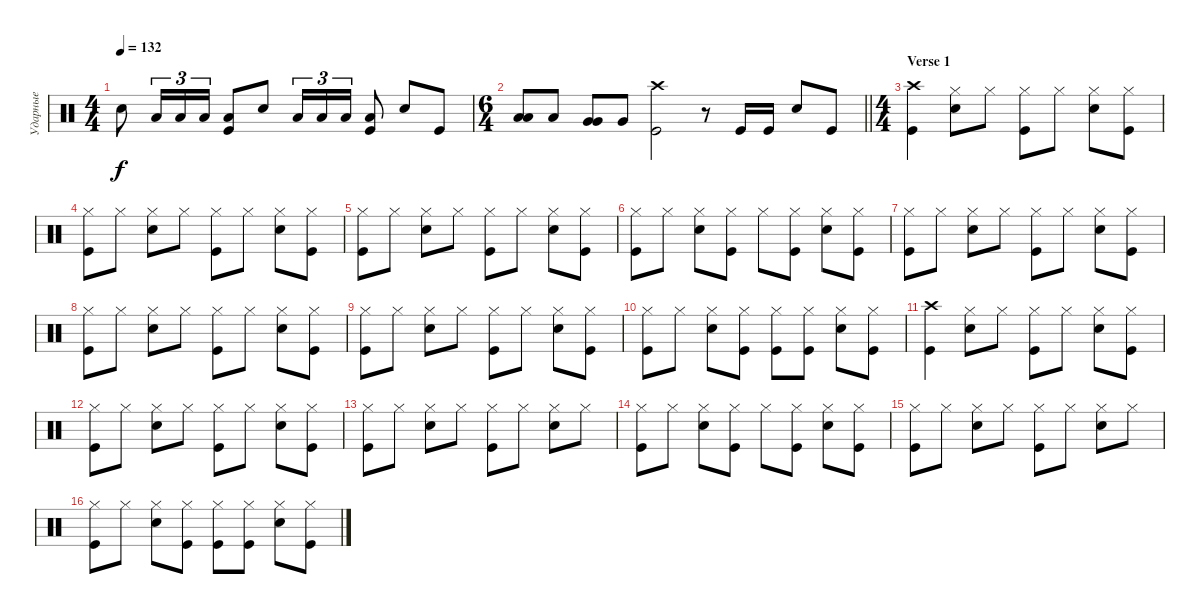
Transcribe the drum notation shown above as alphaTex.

\track ("Ударные" "Ударные") {instrument percussion}
\staff {score}
\articulation defaults
\ts (4 4)
\tempo 132
\clef neutral
\ks c "Snare (hit) 2".8{dy f} "Low Tom (hit)".16{tu (3 2)} "Low Tom (hit)".16{tu (3 2)} "Low Tom (hit)".16{tu (3 2)}
("Kick (hit)" "Low Tom (hit)").8 "Snare (hit) 2".8 "Low Tom (hit)".16{tu (3 2)} "Low Tom (hit)".16{tu (3 2)} "Low Tom (hit)".16{tu (3 2)} ("Kick (hit)" "Low Tom (hit)").8 "Snare (hit) 2".8 "Kick (hit)".8 |
\ts (6 4)
\barLineRight lightlight
("Low Tom (hit)" "Low Tom (hit)").8{bd 240} "Low Tom (hit)".8 ("Very Low Tom (hit)" "Very Low Tom (hit)").8{bd 240} "Very Low Tom (hit)".8 ("Kick (hit)" "Crash high (hit)").2 r.8 "Kick (hit)".16 "Kick (hit)".16 "Snare (hit) 2".8 "Kick (hit)".8 |
\ts (4 4)
\section ("" "Verse 1")
("Kick (hit)" "Crash high (hit)").4 ("Snare (hit) 2" "Hi-Hat (closed)").8 "Hi-Hat (closed)".8 ("Kick (hit)" "Hi-Hat (closed)").8 "Hi-Hat (closed)".8 ("Snare (hit) 2" "Hi-Hat (closed)").8 ("Kick (hit)" "Hi-Hat (closed)").8 |
("Kick (hit)" "Hi-Hat (closed)").8 "Hi-Hat (closed)".8 ("Snare (hit) 2" "Hi-Hat (closed)").8 "Hi-Hat (closed)".8 ("Kick (hit)" "Hi-Hat (closed)").8 "Hi-Hat (closed)".8 ("Snare (hit) 2" "Hi-Hat (closed)").8 ("Kick (hit)" "Hi-Hat (closed)").8 |
("Kick (hit)" "Hi-Hat (closed)").8 "Hi-Hat (closed)".8 ("Snare (hit) 2" "Hi-Hat (closed)").8 "Hi-Hat (closed)".8 ("Kick (hit)" "Hi-Hat (closed)").8 "Hi-Hat (closed)".8 ("Snare (hit) 2" "Hi-Hat (closed)").8 ("Kick (hit)" "Hi-Hat (closed)").8 |
("Kick (hit)" "Hi-Hat (closed)").8 "Hi-Hat (closed)".8 ("Snare (hit) 2" "Hi-Hat (closed)").8 ("Hi-Hat (closed)" "Kick (hit)").8 "Hi-Hat (closed)".8 ("Hi-Hat (closed)" "Kick (hit)").8 ("Snare (hit) 2" "Hi-Hat (closed)").8 ("Kick (hit)" "Hi-Hat (closed)").8 |
("Kick (hit)" "Hi-Hat (closed)").8 "Hi-Hat (closed)".8 ("Snare (hit) 2" "Hi-Hat (closed)").8 "Hi-Hat (closed)".8 ("Kick (hit)" "Hi-Hat (closed)").8 "Hi-Hat (closed)".8 ("Snare (hit) 2" "Hi-Hat (closed)").8 ("Kick (hit)" "Hi-Hat (closed)").8 |
("Kick (hit)" "Hi-Hat (closed)").8 "Hi-Hat (closed)".8 ("Snare (hit) 2" "Hi-Hat (closed)").8 "Hi-Hat (closed)".8 ("Kick (hit)" "Hi-Hat (closed)").8 "Hi-Hat (closed)".8 ("Snare (hit) 2" "Hi-Hat (closed)").8 ("Kick (hit)" "Hi-Hat (closed)").8 |
("Kick (hit)" "Hi-Hat (closed)").8 "Hi-Hat (closed)".8 ("Snare (hit) 2" "Hi-Hat (closed)").8 "Hi-Hat (closed)".8 ("Kick (hit)" "Hi-Hat (closed)").8 "Hi-Hat (closed)".8 ("Snare (hit) 2" "Hi-Hat (closed)").8 ("Kick (hit)" "Hi-Hat (closed)").8 |
("Kick (hit)" "Hi-Hat (closed)").8 "Hi-Hat (closed)".8 ("Snare (hit) 2" "Hi-Hat (closed)").8 ("Hi-Hat (closed)" "Kick (hit)").8 ("Kick (hit)" "Hi-Hat (closed)").8 ("Hi-Hat (closed)" "Kick (hit)").8 ("Snare (hit) 2" "Hi-Hat (closed)").8 ("Kick (hit)" "Hi-Hat (closed)").8 |
("Kick (hit)" "Crash high (hit)").4 ("Snare (hit) 2" "Hi-Hat (closed)").8 "Hi-Hat (closed)".8 ("Kick (hit)" "Hi-Hat (closed)").8 "Hi-Hat (closed)".8 ("Snare (hit) 2" "Hi-Hat (closed)").8 ("Kick (hit)" "Hi-Hat (closed)").8 |
("Kick (hit)" "Hi-Hat (closed)").8 "Hi-Hat (closed)".8 ("Snare (hit) 2" "Hi-Hat (closed)").8 "Hi-Hat (closed)".8 ("Kick (hit)" "Hi-Hat (closed)").8 "Hi-Hat (closed)".8 ("Snare (hit) 2" "Hi-Hat (closed)").8 ("Kick (hit)" "Hi-Hat (closed)").8 |
("Kick (hit)" "Hi-Hat (closed)").8 "Hi-Hat (closed)".8 ("Snare (hit) 2" "Hi-Hat (closed)").8 "Hi-Hat (closed)".8 ("Kick (hit)" "Hi-Hat (closed)").8 "Hi-Hat (closed)".8 ("Snare (hit) 2" "Hi-Hat (closed)").8 "Hi-Hat (closed)".8 |
("Kick (hit)" "Hi-Hat (closed)").8 "Hi-Hat (closed)".8 ("Snare (hit) 2" "Hi-Hat (closed)").8 ("Hi-Hat (closed)" "Kick (hit)").8 "Hi-Hat (closed)".8 ("Hi-Hat (closed)" "Kick (hit)").8 ("Snare (hit) 2" "Hi-Hat (closed)").8 ("Kick (hit)" "Hi-Hat (closed)").8 |
("Kick (hit)" "Hi-Hat (closed)").8 "Hi-Hat (closed)".8 ("Snare (hit) 2" "Hi-Hat (closed)").8 "Hi-Hat (closed)".8 ("Kick (hit)" "Hi-Hat (closed)").8 "Hi-Hat (closed)".8 ("Snare (hit) 2" "Hi-Hat (closed)").8 "Hi-Hat (closed)".8 |
("Kick (hit)" "Hi-Hat (closed)").8 "Hi-Hat (closed)".8 ("Snare (hit) 2" "Hi-Hat (closed)").8 ("Hi-Hat (closed)" "Kick (hit)").8 ("Kick (hit)" "Hi-Hat (closed)").8 ("Hi-Hat (closed)" "Kick (hit)").8 ("Snare (hit) 2" "Hi-Hat (closed)").8 ("Kick (hit)" "Hi-Hat (closed)").8
